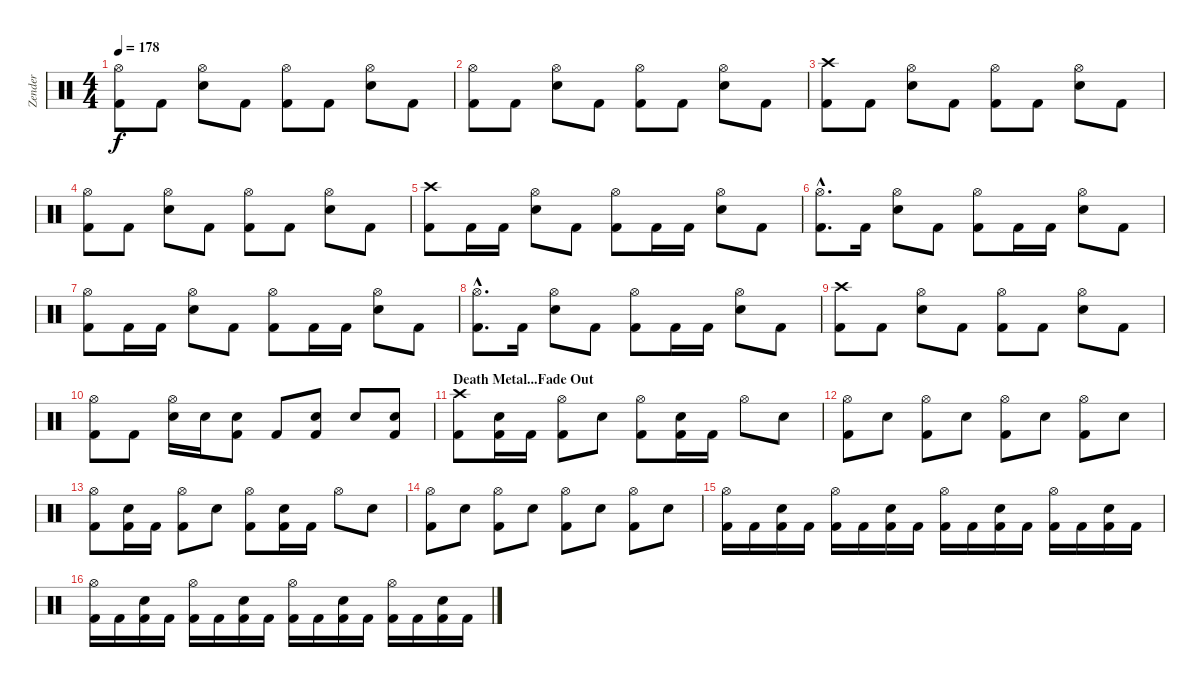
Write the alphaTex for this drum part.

\track ("Zender" "Zender") {instrument percussion}
\staff {score}
\articulation defaults
\ts (4 4)
\tempo 178
\clef neutral
\ks c
("Hi-Hat (open)" "Kick (hit) 2").8{dy f} "Kick (hit) 2".8 ("Electric Snare (hit)" "Hi-Hat (open)").8 "Kick (hit) 2".8 ("Hi-Hat (open)" "Kick (hit) 2").8 "Kick (hit) 2".8 ("Electric Snare (hit)" "Hi-Hat (open)").8 "Kick (hit) 2".8 |
("Hi-Hat (open)" "Kick (hit) 2").8 "Kick (hit) 2".8 ("Electric Snare (hit)" "Hi-Hat (open)").8 "Kick (hit) 2".8 ("Hi-Hat (open)" "Kick (hit) 2").8 "Kick (hit) 2".8 ("Electric Snare (hit)" "Hi-Hat (open)").8 "Kick (hit) 2".8 |
("Crash high (hit)" "Kick (hit) 2").8 "Kick (hit) 2".8 ("Electric Snare (hit)" "Hi-Hat (open)").8 "Kick (hit) 2".8 ("Hi-Hat (open)" "Kick (hit) 2").8 "Kick (hit) 2".8 ("Electric Snare (hit)" "Hi-Hat (open)").8 "Kick (hit) 2".8 |
("Hi-Hat (open)" "Kick (hit) 2").8 "Kick (hit) 2".8 ("Electric Snare (hit)" "Hi-Hat (open)").8 "Kick (hit) 2".8 ("Hi-Hat (open)" "Kick (hit) 2").8 "Kick (hit) 2".8 ("Electric Snare (hit)" "Hi-Hat (open)").8 "Kick (hit) 2".8 |
("Crash high (hit)" "Kick (hit) 2").8 "Kick (hit) 2".16 "Kick (hit) 2".16 ("Electric Snare (hit)" "Hi-Hat (open)").8 "Kick (hit) 2".8 ("Hi-Hat (open)" "Kick (hit) 2").8 "Kick (hit) 2".16 "Kick (hit) 2".16 ("Electric Snare (hit)" "Hi-Hat (open)").8 "Kick (hit) 2".8 |
("Hi-Hat (open)"{hac} "Kick (hit) 2"{hac}).8{d} "Kick (hit) 2".16 ("Electric Snare (hit)" "Hi-Hat (open)").8 "Kick (hit) 2".8 ("Hi-Hat (open)" "Kick (hit) 2").8 "Kick (hit) 2".16 "Kick (hit) 2".16 ("Electric Snare (hit)" "Hi-Hat (open)").8 "Kick (hit) 2".8 |
("Hi-Hat (open)" "Kick (hit) 2").8 "Kick (hit) 2".16 "Kick (hit) 2".16 ("Electric Snare (hit)" "Hi-Hat (open)").8 "Kick (hit) 2".8 ("Hi-Hat (open)" "Kick (hit) 2").8 "Kick (hit) 2".16 "Kick (hit) 2".16 ("Electric Snare (hit)" "Hi-Hat (open)").8 "Kick (hit) 2".8 |
("Hi-Hat (open)"{hac} "Kick (hit) 2"{hac}).8{d} "Kick (hit) 2".16 ("Electric Snare (hit)" "Hi-Hat (open)").8 "Kick (hit) 2".8 ("Hi-Hat (open)" "Kick (hit) 2").8 "Kick (hit) 2".16 "Kick (hit) 2".16 ("Electric Snare (hit)" "Hi-Hat (open)").8 "Kick (hit) 2".8 |
("Crash high (hit)" "Kick (hit) 2").8 "Kick (hit) 2".8 ("Electric Snare (hit)" "Hi-Hat (open)").8 "Kick (hit) 2".8 ("Hi-Hat (open)" "Kick (hit) 2").8 "Kick (hit) 2".8 ("Electric Snare (hit)" "Hi-Hat (open)").8 "Kick (hit) 2".8 |
("Hi-Hat (open)" "Kick (hit) 2").8 "Kick (hit) 2".8 ("Electric Snare (hit)" "Hi-Hat (open)").16 "Electric Snare (hit)".16 ("Electric Snare (hit)" "Kick (hit) 2").8 "Kick (hit) 2".8 ("Electric Snare (hit)" "Kick (hit) 2").8 "Electric Snare (hit)".8 ("Electric Snare (hit)" "Kick (hit) 2").8 |
\section ("" "Death Metal...Fade Out")
("Crash high (hit)" "Kick (hit) 2").8{volume 10} ("Electric Snare (hit)" "Kick (hit) 2").16 "Kick (hit) 2".16 ("Hi-Hat (open)" "Kick (hit) 2").8 "Electric Snare (hit)".8 ("Hi-Hat (open)" "Kick (hit) 2").8 ("Electric Snare (hit)" "Kick (hit) 2").16 "Kick (hit) 2".16 "Hi-Hat (open)".8 "Electric Snare (hit)".8 |
("Hi-Hat (open)" "Kick (hit) 2").8 "Electric Snare (hit)".8 ("Hi-Hat (open)" "Kick (hit) 2").8 "Electric Snare (hit)".8 ("Hi-Hat (open)" "Kick (hit) 2").8 "Electric Snare (hit)".8 ("Hi-Hat (open)" "Kick (hit) 2").8 "Electric Snare (hit)".8 |
("Hi-Hat (open)" "Kick (hit) 2").8 ("Electric Snare (hit)" "Kick (hit) 2").16 "Kick (hit) 2".16 ("Hi-Hat (open)" "Kick (hit) 2").8 "Electric Snare (hit)".8 ("Hi-Hat (open)" "Kick (hit) 2").8 ("Electric Snare (hit)" "Kick (hit) 2").16 "Kick (hit) 2".16 "Hi-Hat (open)".8 "Electric Snare (hit)".8 |
("Hi-Hat (open)" "Kick (hit) 2").8 "Electric Snare (hit)".8 ("Hi-Hat (open)" "Kick (hit) 2").8 "Electric Snare (hit)".8 ("Hi-Hat (open)" "Kick (hit) 2").8 "Electric Snare (hit)".8 ("Hi-Hat (open)" "Kick (hit) 2").8 "Electric Snare (hit)".8 |
("Hi-Hat (open)" "Kick (hit) 2").16{volume 8} "Kick (hit) 2".16 ("Electric Snare (hit)" "Kick (hit) 2").16 "Kick (hit) 2".16 ("Hi-Hat (open)" "Kick (hit) 2").16 "Kick (hit) 2".16 ("Electric Snare (hit)" "Kick (hit) 2").16 "Kick (hit) 2".16 ("Hi-Hat (open)" "Kick (hit) 2").16 "Kick (hit) 2".16 ("Electric Snare (hit)" "Kick (hit) 2").16 "Kick (hit) 2".16 ("Hi-Hat (open)" "Kick (hit) 2").16 "Kick (hit) 2".16 ("Electric Snare (hit)" "Kick (hit) 2").16 "Kick (hit) 2".16 |
("Hi-Hat (open)" "Kick (hit) 2").16 "Kick (hit) 2".16 ("Electric Snare (hit)" "Kick (hit) 2").16 "Kick (hit) 2".16 ("Hi-Hat (open)" "Kick (hit) 2").16 "Kick (hit) 2".16 ("Electric Snare (hit)" "Kick (hit) 2").16 "Kick (hit) 2".16 ("Hi-Hat (open)" "Kick (hit) 2").16 "Kick (hit) 2".16 ("Electric Snare (hit)" "Kick (hit) 2").16 "Kick (hit) 2".16 ("Hi-Hat (open)" "Kick (hit) 2").16 "Kick (hit) 2".16 ("Electric Snare (hit)" "Kick (hit) 2").16 "Kick (hit) 2".16
